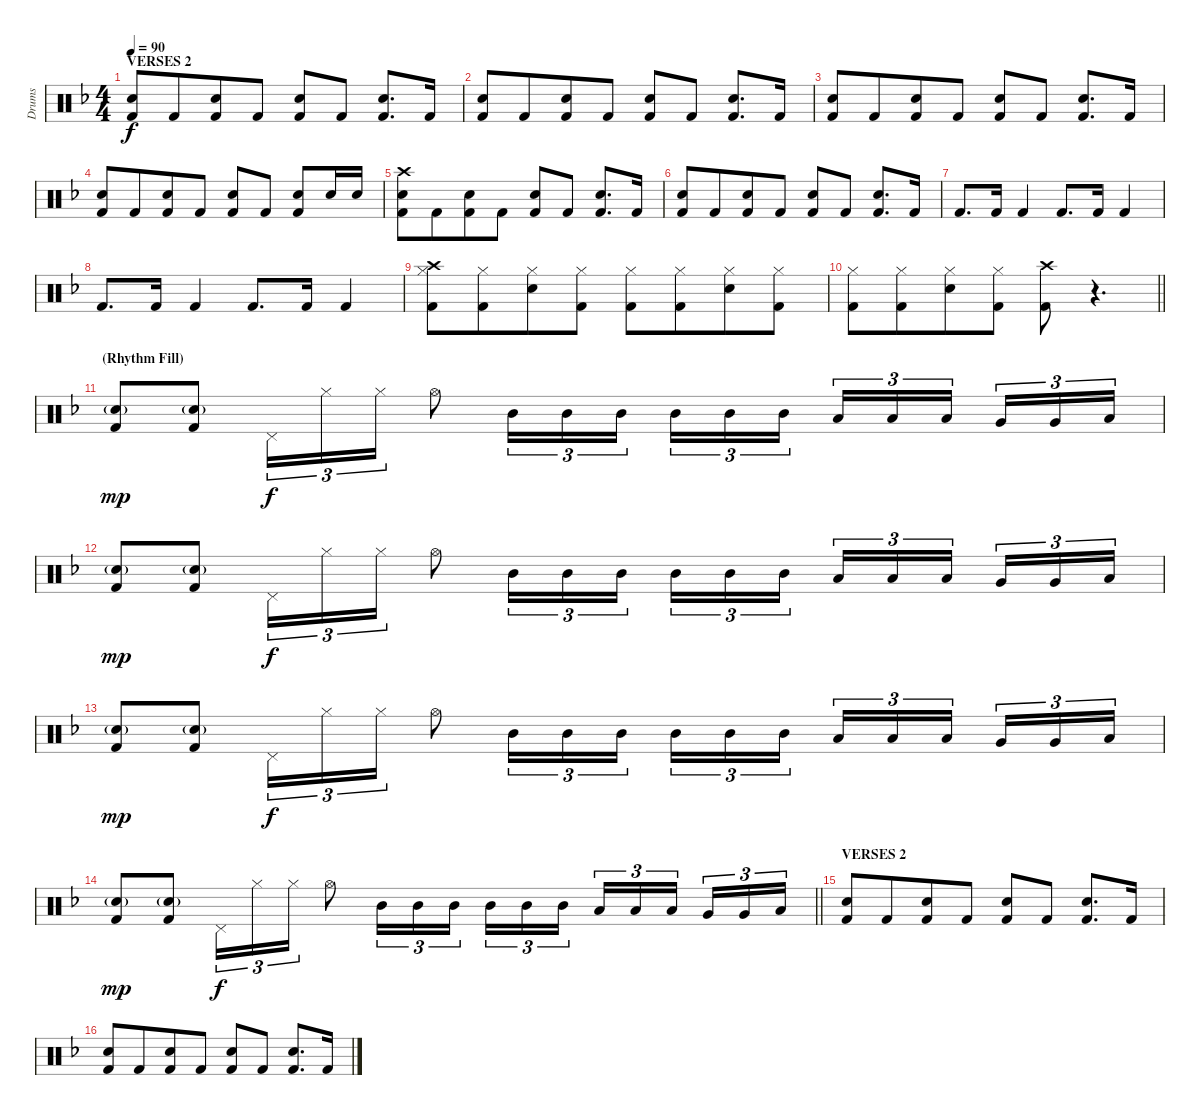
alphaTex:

\track ("Drums" "Drums") {instrument percussion}
\staff {score}
\articulation defaults
\ts (4 4)
\section ("" "VERSES 2")
\tempo 90
\clef neutral
\ks dminor
("Electric Snare (hit)" "Kick (hit) 2").8{dy f} "Kick (hit) 2".8{beam merge} ("Electric Snare (hit)" "Kick (hit) 2").8 "Kick (hit) 2".8 ("Electric Snare (hit)" "Kick (hit) 2").8 "Kick (hit) 2".8 ("Electric Snare (hit)" "Kick (hit) 2").8{d} "Kick (hit) 2".16 |
("Electric Snare (hit)" "Kick (hit) 2").8 "Kick (hit) 2".8{beam merge} ("Electric Snare (hit)" "Kick (hit) 2").8 "Kick (hit) 2".8 ("Electric Snare (hit)" "Kick (hit) 2").8 "Kick (hit) 2".8 ("Electric Snare (hit)" "Kick (hit) 2").8{d} "Kick (hit) 2".16 |
("Electric Snare (hit)" "Kick (hit) 2").8 "Kick (hit) 2".8{beam merge} ("Electric Snare (hit)" "Kick (hit) 2").8 "Kick (hit) 2".8 ("Electric Snare (hit)" "Kick (hit) 2").8 "Kick (hit) 2".8 ("Electric Snare (hit)" "Kick (hit) 2").8{d} "Kick (hit) 2".16 |
("Electric Snare (hit)" "Kick (hit) 2").8 "Kick (hit) 2".8{beam merge} ("Electric Snare (hit)" "Kick (hit) 2").8 "Kick (hit) 2".8 ("Electric Snare (hit)" "Kick (hit) 2").8 "Kick (hit) 2".8 ("Electric Snare (hit)" "Kick (hit) 2").8 "Electric Snare (hit)".16 "Electric Snare (hit)".16 |
("Crash high (hit)" "Electric Snare (hit)" "Kick (hit) 2").8 "Kick (hit) 2".8{beam merge} ("Electric Snare (hit)" "Kick (hit) 2").8 "Kick (hit) 2".8 ("Electric Snare (hit)" "Kick (hit) 2").8 "Kick (hit) 2".8 ("Electric Snare (hit)" "Kick (hit) 2").8{d} "Kick (hit) 2".16 |
("Electric Snare (hit)" "Kick (hit) 2").8 "Kick (hit) 2".8{beam merge} ("Electric Snare (hit)" "Kick (hit) 2").8 "Kick (hit) 2".8 ("Electric Snare (hit)" "Kick (hit) 2").8 "Kick (hit) 2".8 ("Electric Snare (hit)" "Kick (hit) 2").8{d} "Kick (hit) 2".16 |
"Kick (hit) 2".8{d} "Kick (hit) 2".16 "Kick (hit) 2".4 "Kick (hit) 2".8{d} "Kick (hit) 2".16 "Kick (hit) 2".4 |
"Kick (hit) 2".8{d} "Kick (hit) 2".16 "Kick (hit) 2".4 "Kick (hit) 2".8{d} "Kick (hit) 2".16 "Kick (hit) 2".4 |
("Crash high (hit)" "Hi-Hat (closed)" "Kick (hit) 2").8 ("Hi-Hat (closed)" "Kick (hit) 2").8{beam merge} ("Hi-Hat (closed)" "Electric Snare (hit)").8 ("Hi-Hat (closed)" "Kick (hit) 2").8 ("Hi-Hat (closed)" "Kick (hit) 2").8 ("Hi-Hat (closed)" "Kick (hit) 2").8{beam merge} ("Hi-Hat (closed)" "Electric Snare (hit)").8 ("Hi-Hat (closed)" "Kick (hit) 2").8 |
\barLineRight lightlight
("Hi-Hat (closed)" "Kick (hit) 2").8 ("Hi-Hat (closed)" "Kick (hit) 2").8{beam merge} ("Hi-Hat (closed)" "Electric Snare (hit)").8 ("Hi-Hat (closed)" "Kick (hit) 2").8 ("Crash high (hit)" "Kick (hit) 2").8 r.4{d} |
\section ("" "(Rhythm Fill)")
("Hand Clap (hit)"{g} "Kick (hit) 2").8{dy mp} ("Hand Clap (hit)"{g} "Kick (hit) 2").8 "Pedal Hi-Hat (hit)".16{tu (3 2) dy f} "Hi-Hat (closed)".16{tu (3 2)} "Hi-Hat (closed)".16{tu (3 2)} "Hi-Hat (open)".8 "Mid Tom (hit)".16{tu (3 2)} "Mid Tom (hit)".16{tu (3 2)} "Mid Tom (hit)".16{tu (3 2) beam splitsecondary} "Mid Tom (hit)".16{tu (3 2)} "Mid Tom (hit)".16{tu (3 2)} "Mid Tom (hit)".16{tu (3 2)} "Low Tom (hit)".16{tu (3 2)} "Low Tom (hit)".16{tu (3 2)} "Low Tom (hit)".16{tu (3 2) beam splitsecondary} "Very Low Tom (hit)".16{tu (3 2)} "Very Low Tom (hit)".16{tu (3 2)} "Low Floor Tom (hit)".16{tu (3 2)} |
("Hand Clap (hit)"{g} "Kick (hit) 2").8{dy mp} ("Hand Clap (hit)"{g} "Kick (hit) 2").8 "Pedal Hi-Hat (hit)".16{tu (3 2) dy f} "Hi-Hat (closed)".16{tu (3 2)} "Hi-Hat (closed)".16{tu (3 2)} "Hi-Hat (open)".8 "Mid Tom (hit)".16{tu (3 2)} "Mid Tom (hit)".16{tu (3 2)} "Mid Tom (hit)".16{tu (3 2) beam splitsecondary} "Mid Tom (hit)".16{tu (3 2)} "Mid Tom (hit)".16{tu (3 2)} "Mid Tom (hit)".16{tu (3 2)} "Low Tom (hit)".16{tu (3 2)} "Low Tom (hit)".16{tu (3 2)} "Low Tom (hit)".16{tu (3 2) beam splitsecondary} "Very Low Tom (hit)".16{tu (3 2)} "Very Low Tom (hit)".16{tu (3 2)} "Low Floor Tom (hit)".16{tu (3 2)} |
("Hand Clap (hit)"{g} "Kick (hit) 2").8{dy mp} ("Hand Clap (hit)"{g} "Kick (hit) 2").8 "Pedal Hi-Hat (hit)".16{tu (3 2) dy f} "Hi-Hat (closed)".16{tu (3 2)} "Hi-Hat (closed)".16{tu (3 2)} "Hi-Hat (open)".8 "Mid Tom (hit)".16{tu (3 2)} "Mid Tom (hit)".16{tu (3 2)} "Mid Tom (hit)".16{tu (3 2) beam splitsecondary} "Mid Tom (hit)".16{tu (3 2)} "Mid Tom (hit)".16{tu (3 2)} "Mid Tom (hit)".16{tu (3 2)} "Low Tom (hit)".16{tu (3 2)} "Low Tom (hit)".16{tu (3 2)} "Low Tom (hit)".16{tu (3 2) beam splitsecondary} "Very Low Tom (hit)".16{tu (3 2)} "Very Low Tom (hit)".16{tu (3 2)} "Low Floor Tom (hit)".16{tu (3 2)} |
\barLineRight lightlight
("Hand Clap (hit)"{g} "Kick (hit) 2").8{dy mp} ("Hand Clap (hit)"{g} "Kick (hit) 2").8 "Pedal Hi-Hat (hit)".16{tu (3 2) dy f} "Hi-Hat (closed)".16{tu (3 2)} "Hi-Hat (closed)".16{tu (3 2)} "Hi-Hat (open)".8 "Mid Tom (hit)".16{tu (3 2)} "Mid Tom (hit)".16{tu (3 2)} "Mid Tom (hit)".16{tu (3 2) beam splitsecondary} "Mid Tom (hit)".16{tu (3 2)} "Mid Tom (hit)".16{tu (3 2)} "Mid Tom (hit)".16{tu (3 2)} "Low Tom (hit)".16{tu (3 2)} "Low Tom (hit)".16{tu (3 2)} "Low Tom (hit)".16{tu (3 2) beam splitsecondary} "Very Low Tom (hit)".16{tu (3 2)} "Very Low Tom (hit)".16{tu (3 2)} "Low Floor Tom (hit)".16{tu (3 2)} |
\section ("" "VERSES 2")
("Electric Snare (hit)" "Kick (hit) 2").8 "Kick (hit) 2".8{beam merge} ("Electric Snare (hit)" "Kick (hit) 2").8 "Kick (hit) 2".8 ("Electric Snare (hit)" "Kick (hit) 2").8 "Kick (hit) 2".8 ("Electric Snare (hit)" "Kick (hit) 2").8{d} "Kick (hit) 2".16 |
("Electric Snare (hit)" "Kick (hit) 2").8 "Kick (hit) 2".8{beam merge} ("Electric Snare (hit)" "Kick (hit) 2").8 "Kick (hit) 2".8 ("Electric Snare (hit)" "Kick (hit) 2").8 "Kick (hit) 2".8 ("Electric Snare (hit)" "Kick (hit) 2").8{d} "Kick (hit) 2".16
